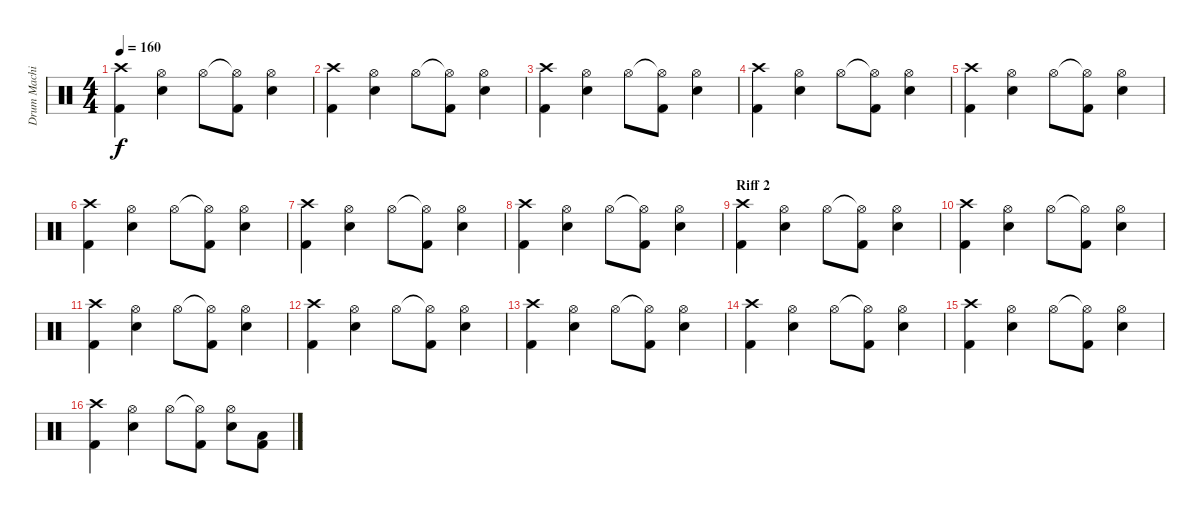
\track ("Drum Machine" "Drum Machi") {instrument percussion}
\staff {score}
\articulation defaults
\ts (4 4)
\tempo 160
\clef neutral
\ks c
("Crash high (hit)" "Kick (hit) 2").4{dy f} ("Hi-Hat (open)" "Electric Snare (hit)").4 "Hi-Hat (open)".8 ("Hi-Hat (open)"{t} "Kick (hit) 2").8 ("Hi-Hat (open)" "Electric Snare (hit)").4 |
("Crash high (hit)" "Kick (hit) 2").4 ("Hi-Hat (open)" "Electric Snare (hit)").4 "Hi-Hat (open)".8 ("Hi-Hat (open)"{t} "Kick (hit) 2").8 ("Hi-Hat (open)" "Electric Snare (hit)").4 |
("Crash high (hit)" "Kick (hit) 2").4 ("Hi-Hat (open)" "Electric Snare (hit)").4 "Hi-Hat (open)".8 ("Hi-Hat (open)"{t} "Kick (hit) 2").8 ("Hi-Hat (open)" "Electric Snare (hit)").4 |
("Crash high (hit)" "Kick (hit) 2").4 ("Hi-Hat (open)" "Electric Snare (hit)").4 "Hi-Hat (open)".8 ("Hi-Hat (open)"{t} "Kick (hit) 2").8 ("Hi-Hat (open)" "Electric Snare (hit)").4 |
("Crash high (hit)" "Kick (hit) 2").4 ("Hi-Hat (open)" "Electric Snare (hit)").4 "Hi-Hat (open)".8 ("Hi-Hat (open)"{t} "Kick (hit) 2").8 ("Hi-Hat (open)" "Electric Snare (hit)").4 |
("Crash high (hit)" "Kick (hit) 2").4 ("Hi-Hat (open)" "Electric Snare (hit)").4 "Hi-Hat (open)".8 ("Hi-Hat (open)"{t} "Kick (hit) 2").8 ("Hi-Hat (open)" "Electric Snare (hit)").4 |
("Crash high (hit)" "Kick (hit) 2").4 ("Hi-Hat (open)" "Electric Snare (hit)").4 "Hi-Hat (open)".8 ("Hi-Hat (open)"{t} "Kick (hit) 2").8 ("Hi-Hat (open)" "Electric Snare (hit)").4 |
("Crash high (hit)" "Kick (hit) 2").4 ("Hi-Hat (open)" "Electric Snare (hit)").4 "Hi-Hat (open)".8 ("Hi-Hat (open)"{t} "Kick (hit) 2").8 ("Hi-Hat (open)" "Electric Snare (hit)").4 |
\section ("" "Riff 2")
("Crash high (hit)" "Kick (hit) 2").4 ("Hi-Hat (open)" "Electric Snare (hit)").4 "Hi-Hat (open)".8 ("Hi-Hat (open)"{t} "Kick (hit) 2").8 ("Hi-Hat (open)" "Electric Snare (hit)").4 |
("Crash high (hit)" "Kick (hit) 2").4 ("Hi-Hat (open)" "Electric Snare (hit)").4 "Hi-Hat (open)".8 ("Hi-Hat (open)"{t} "Kick (hit) 2").8 ("Hi-Hat (open)" "Electric Snare (hit)").4 |
("Crash high (hit)" "Kick (hit) 2").4 ("Hi-Hat (open)" "Electric Snare (hit)").4 "Hi-Hat (open)".8 ("Hi-Hat (open)"{t} "Kick (hit) 2").8 ("Hi-Hat (open)" "Electric Snare (hit)").4 |
("Crash high (hit)" "Kick (hit) 2").4 ("Hi-Hat (open)" "Electric Snare (hit)").4 "Hi-Hat (open)".8 ("Hi-Hat (open)"{t} "Kick (hit) 2").8 ("Hi-Hat (open)" "Electric Snare (hit)").4 |
("Crash high (hit)" "Kick (hit) 2").4 ("Hi-Hat (open)" "Electric Snare (hit)").4 "Hi-Hat (open)".8 ("Hi-Hat (open)"{t} "Kick (hit) 2").8 ("Hi-Hat (open)" "Electric Snare (hit)").4 |
("Crash high (hit)" "Kick (hit) 2").4 ("Hi-Hat (open)" "Electric Snare (hit)").4 "Hi-Hat (open)".8 ("Hi-Hat (open)"{t} "Kick (hit) 2").8 ("Hi-Hat (open)" "Electric Snare (hit)").4 |
("Crash high (hit)" "Kick (hit) 2").4 ("Hi-Hat (open)" "Electric Snare (hit)").4 "Hi-Hat (open)".8 ("Hi-Hat (open)"{t} "Kick (hit) 2").8 ("Hi-Hat (open)" "Electric Snare (hit)").4 |
("Crash high (hit)" "Kick (hit) 2").4 ("Hi-Hat (open)" "Electric Snare (hit)").4 "Hi-Hat (open)".8 ("Hi-Hat (open)"{t} "Kick (hit) 2").8 ("Hi-Hat (open)" "Electric Snare (hit)").8 ("Low Floor Tom (hit)" "Kick (hit) 2").8
